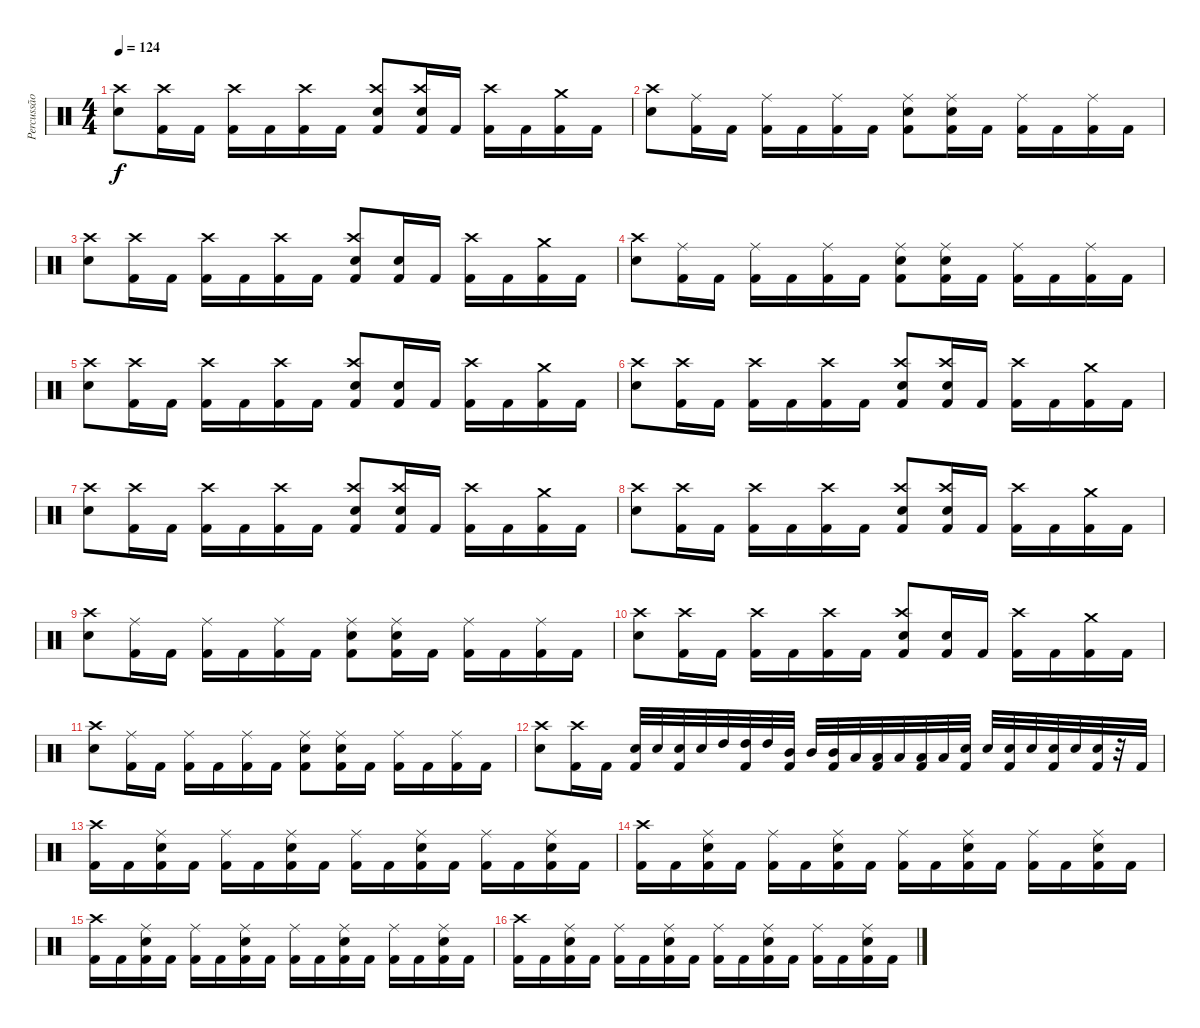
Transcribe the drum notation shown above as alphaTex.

\track ("Percussão" "Percussão") {instrument percussion}
\staff {score}
\articulation defaults
\ts (4 4)
\tempo 124
\clef neutral
\ks c
("Electric Snare (hit)" "Crash high (hit)").8{dy f} ("Kick (hit) 2" "Crash high (hit)").16 "Kick (hit) 2".16 ("Kick (hit) 2" "Crash high (hit)").16 "Kick (hit) 2".16 ("Kick (hit) 2" "Crash high (hit)").16 "Kick (hit) 2".16 ("Kick (hit) 2" "Electric Snare (hit)" "Crash high (hit)").8 ("Kick (hit) 2" "Electric Snare (hit)" "Crash high (hit)").16 "Kick (hit) 2".16 ("Kick (hit) 2" "Crash high (hit)").16 "Kick (hit) 2".16 ("Kick (hit) 2" "Crash medium (hit)").16 "Kick (hit) 2".16 |
("Electric Snare (hit)" "Crash high (hit)").8 ("Kick (hit) 2" "Ride (middle)").16 "Kick (hit) 2".16 ("Kick (hit) 2" "Ride (middle)").16 "Kick (hit) 2".16 ("Kick (hit) 2" "Ride (middle)").16 "Kick (hit) 2".16 ("Kick (hit) 2" "Electric Snare (hit)" "Ride (middle)").8 ("Kick (hit) 2" "Ride (middle)" "Electric Snare (hit)").16 "Kick (hit) 2".16 ("Kick (hit) 2" "Ride (middle)").16 "Kick (hit) 2".16 ("Kick (hit) 2" "Ride (middle)").16 "Kick (hit) 2".16 |
("Electric Snare (hit)" "Crash high (hit)").8 ("Kick (hit) 2" "Crash high (hit)").16 "Kick (hit) 2".16 ("Kick (hit) 2" "Crash high (hit)").16 "Kick (hit) 2".16 ("Kick (hit) 2" "Crash high (hit)").16 "Kick (hit) 2".16 ("Kick (hit) 2" "Electric Snare (hit)" "Crash high (hit)").8 ("Kick (hit) 2" "Electric Snare (hit)").16 "Kick (hit) 2".16 ("Kick (hit) 2" "Crash high (hit)").16 "Kick (hit) 2".16 ("Kick (hit) 2" "Crash medium (hit)").16 "Kick (hit) 2".16 |
("Electric Snare (hit)" "Crash high (hit)").8 ("Kick (hit) 2" "Ride (middle)").16 "Kick (hit) 2".16 ("Kick (hit) 2" "Ride (middle)").16 "Kick (hit) 2".16 ("Kick (hit) 2" "Ride (middle)").16 "Kick (hit) 2".16 ("Kick (hit) 2" "Electric Snare (hit)" "Ride (middle)").8 ("Kick (hit) 2" "Ride (middle)" "Electric Snare (hit)").16 "Kick (hit) 2".16 ("Kick (hit) 2" "Ride (middle)").16 "Kick (hit) 2".16 ("Kick (hit) 2" "Ride (middle)").16 "Kick (hit) 2".16 |
("Electric Snare (hit)" "Crash high (hit)").8 ("Kick (hit) 2" "Crash high (hit)").16 "Kick (hit) 2".16 ("Kick (hit) 2" "Crash high (hit)").16 "Kick (hit) 2".16 ("Kick (hit) 2" "Crash high (hit)").16 "Kick (hit) 2".16 ("Kick (hit) 2" "Electric Snare (hit)" "Crash high (hit)").8 ("Kick (hit) 2" "Electric Snare (hit)").16 "Kick (hit) 2".16 ("Kick (hit) 2" "Crash high (hit)").16 "Kick (hit) 2".16 ("Kick (hit) 2" "Crash medium (hit)").16 "Kick (hit) 2".16 |
("Electric Snare (hit)" "Crash high (hit)").8 ("Kick (hit) 2" "Crash high (hit)").16 "Kick (hit) 2".16 ("Kick (hit) 2" "Crash high (hit)").16 "Kick (hit) 2".16 ("Kick (hit) 2" "Crash high (hit)").16 "Kick (hit) 2".16 ("Kick (hit) 2" "Electric Snare (hit)" "Crash high (hit)").8 ("Kick (hit) 2" "Electric Snare (hit)" "Crash high (hit)").16 "Kick (hit) 2".16 ("Kick (hit) 2" "Crash high (hit)").16 "Kick (hit) 2".16 ("Kick (hit) 2" "Crash medium (hit)").16 "Kick (hit) 2".16 |
("Electric Snare (hit)" "Crash high (hit)").8 ("Kick (hit) 2" "Crash high (hit)").16 "Kick (hit) 2".16 ("Kick (hit) 2" "Crash high (hit)").16 "Kick (hit) 2".16 ("Kick (hit) 2" "Crash high (hit)").16 "Kick (hit) 2".16 ("Kick (hit) 2" "Electric Snare (hit)" "Crash high (hit)").8 ("Kick (hit) 2" "Electric Snare (hit)" "Crash high (hit)").16 "Kick (hit) 2".16 ("Kick (hit) 2" "Crash high (hit)").16 "Kick (hit) 2".16 ("Kick (hit) 2" "Crash medium (hit)").16 "Kick (hit) 2".16 |
("Electric Snare (hit)" "Crash high (hit)").8 ("Kick (hit) 2" "Crash high (hit)").16 "Kick (hit) 2".16 ("Kick (hit) 2" "Crash high (hit)").16 "Kick (hit) 2".16 ("Kick (hit) 2" "Crash high (hit)").16 "Kick (hit) 2".16 ("Kick (hit) 2" "Electric Snare (hit)" "Crash high (hit)").8 ("Kick (hit) 2" "Electric Snare (hit)" "Crash high (hit)").16 "Kick (hit) 2".16 ("Kick (hit) 2" "Crash high (hit)").16 "Kick (hit) 2".16 ("Kick (hit) 2" "Crash medium (hit)").16 "Kick (hit) 2".16 |
("Electric Snare (hit)" "Crash high (hit)").8 ("Kick (hit) 2" "Ride (middle)").16 "Kick (hit) 2".16 ("Kick (hit) 2" "Ride (middle)").16 "Kick (hit) 2".16 ("Kick (hit) 2" "Ride (middle)").16 "Kick (hit) 2".16 ("Kick (hit) 2" "Electric Snare (hit)" "Ride (middle)").8 ("Kick (hit) 2" "Ride (middle)" "Electric Snare (hit)").16 "Kick (hit) 2".16 ("Kick (hit) 2" "Ride (middle)").16 "Kick (hit) 2".16 ("Kick (hit) 2" "Ride (middle)").16 "Kick (hit) 2".16 |
("Electric Snare (hit)" "Crash high (hit)").8 ("Kick (hit) 2" "Crash high (hit)").16 "Kick (hit) 2".16 ("Kick (hit) 2" "Crash high (hit)").16 "Kick (hit) 2".16 ("Kick (hit) 2" "Crash high (hit)").16 "Kick (hit) 2".16 ("Kick (hit) 2" "Electric Snare (hit)" "Crash high (hit)").8 ("Kick (hit) 2" "Electric Snare (hit)").16 "Kick (hit) 2".16 ("Kick (hit) 2" "Crash high (hit)").16 "Kick (hit) 2".16 ("Kick (hit) 2" "Crash medium (hit)").16 "Kick (hit) 2".16 |
("Electric Snare (hit)" "Crash high (hit)").8 ("Kick (hit) 2" "Ride (middle)").16 "Kick (hit) 2".16 ("Kick (hit) 2" "Ride (middle)").16 "Kick (hit) 2".16 ("Kick (hit) 2" "Ride (middle)").16 "Kick (hit) 2".16 ("Kick (hit) 2" "Electric Snare (hit)" "Ride (middle)").8 ("Kick (hit) 2" "Ride (middle)" "Electric Snare (hit)").16 "Kick (hit) 2".16 ("Kick (hit) 2" "Ride (middle)").16 "Kick (hit) 2".16 ("Kick (hit) 2" "Ride (middle)").16 "Kick (hit) 2".16 |
("Electric Snare (hit)" "Crash high (hit)").8 ("Kick (hit) 2" "Crash high (hit)").16 "Kick (hit) 2".16 ("Kick (hit) 2" "Electric Snare (hit)").32 "Electric Snare (hit)".32 ("Kick (hit) 2" "Electric Snare (hit)").32 "Electric Snare (hit)".32 "High Tom (hit)".32 ("Kick (hit) 2" "High Tom (hit)").32 "High Tom (hit)".32 ("Kick (hit) 2" "Mid Tom (hit)").32 "Mid Tom (hit)".32 ("Kick (hit) 2" "Mid Tom (hit)").32 "Low Tom (hit)".32 ("Kick (hit) 2" "Low Tom (hit)").32 "Low Tom (hit)".32 ("Kick (hit) 2" "Low Floor Tom (hit)").32 "Low Floor Tom (hit)".32 ("Kick (hit) 2" "Electric Snare (hit)").32 "Electric Snare (hit)".32 ("Kick (hit) 2" "Electric Snare (hit)").32 "Electric Snare (hit)".32 ("Kick (hit) 2" "Electric Snare (hit)").32 "Electric Snare (hit)".32 ("Kick (hit) 2" "Electric Snare (hit)").32 r.32 "Kick (hit) 2".32 |
("Kick (hit) 2" "Crash high (hit)").16 "Kick (hit) 2".16 ("Kick (hit) 2" "Electric Snare (hit)" "Ride (middle)").16 "Kick (hit) 2".16 ("Kick (hit) 2" "Ride (middle)").16 "Kick (hit) 2".16 ("Kick (hit) 2" "Electric Snare (hit)" "Ride (middle)").16 "Kick (hit) 2".16 ("Kick (hit) 2" "Ride (middle)").16 "Kick (hit) 2".16 ("Kick (hit) 2" "Electric Snare (hit)" "Ride (middle)").16 "Kick (hit) 2".16 ("Kick (hit) 2" "Ride (middle)").16 "Kick (hit) 2".16 ("Kick (hit) 2" "Electric Snare (hit)" "Ride (middle)").16 "Kick (hit) 2".16 |
("Kick (hit) 2" "Crash high (hit)").16 "Kick (hit) 2".16 ("Kick (hit) 2" "Electric Snare (hit)" "Ride (middle)").16 "Kick (hit) 2".16 ("Kick (hit) 2" "Ride (middle)").16 "Kick (hit) 2".16 ("Kick (hit) 2" "Electric Snare (hit)" "Ride (middle)").16 "Kick (hit) 2".16 ("Kick (hit) 2" "Ride (middle)").16 "Kick (hit) 2".16 ("Kick (hit) 2" "Electric Snare (hit)" "Ride (middle)").16 "Kick (hit) 2".16 ("Kick (hit) 2" "Ride (middle)").16 "Kick (hit) 2".16 ("Kick (hit) 2" "Electric Snare (hit)" "Ride (middle)").16 "Kick (hit) 2".16 |
("Kick (hit) 2" "Crash high (hit)").16 "Kick (hit) 2".16 ("Kick (hit) 2" "Electric Snare (hit)" "Ride (middle)").16 "Kick (hit) 2".16 ("Kick (hit) 2" "Ride (middle)").16 "Kick (hit) 2".16 ("Kick (hit) 2" "Electric Snare (hit)" "Ride (middle)").16 "Kick (hit) 2".16 ("Kick (hit) 2" "Ride (middle)").16 "Kick (hit) 2".16 ("Kick (hit) 2" "Electric Snare (hit)" "Ride (middle)").16 "Kick (hit) 2".16 ("Kick (hit) 2" "Ride (middle)").16 "Kick (hit) 2".16 ("Kick (hit) 2" "Electric Snare (hit)" "Ride (middle)").16 "Kick (hit) 2".16 |
("Kick (hit) 2" "Crash high (hit)").16 "Kick (hit) 2".16 ("Kick (hit) 2" "Electric Snare (hit)" "Ride (middle)").16 "Kick (hit) 2".16 ("Kick (hit) 2" "Ride (middle)").16 "Kick (hit) 2".16 ("Kick (hit) 2" "Electric Snare (hit)" "Ride (middle)").16 "Kick (hit) 2".16 ("Kick (hit) 2" "Ride (middle)").16 "Kick (hit) 2".16 ("Kick (hit) 2" "Electric Snare (hit)" "Ride (middle)").16 "Kick (hit) 2".16 ("Kick (hit) 2" "Ride (middle)").16 "Kick (hit) 2".16 ("Kick (hit) 2" "Electric Snare (hit)" "Ride (middle)").16 "Kick (hit) 2".16
